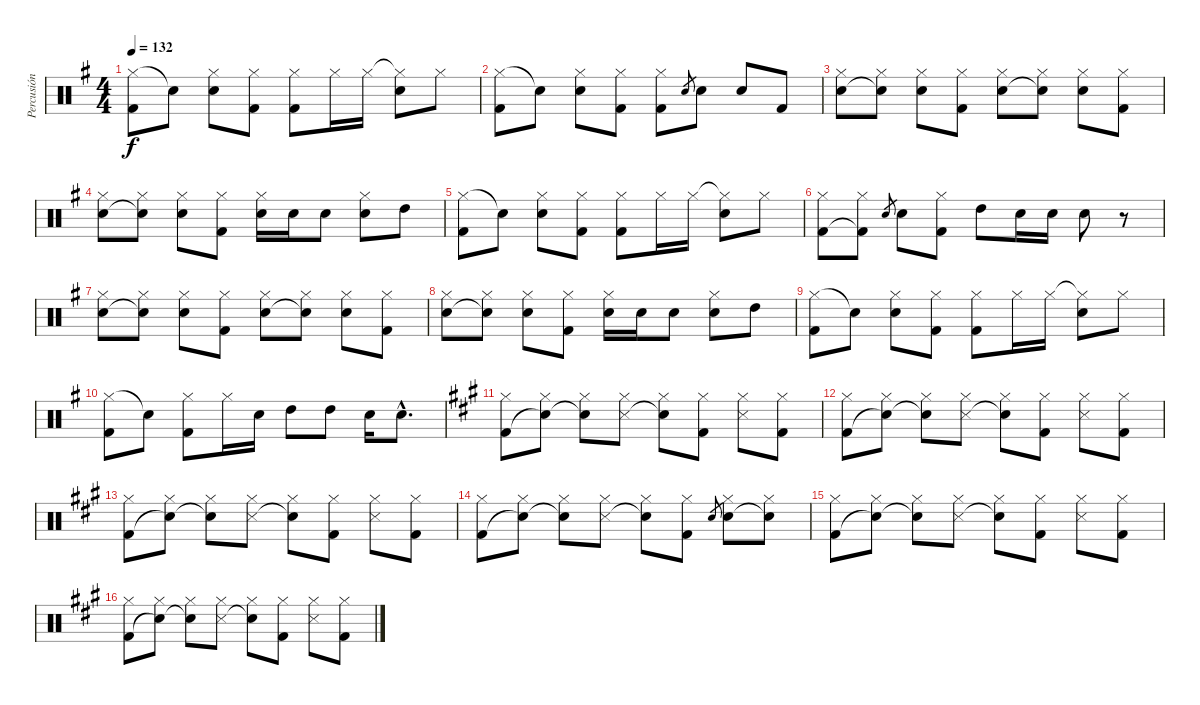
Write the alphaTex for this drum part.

\track ("Percusión" "Percusión") {instrument percussion}
\staff {score}
\articulation defaults
\ts (4 4)
\tempo 132
\clef neutral
\ks eminor
("Hi-Hat (closed)" "Kick (hit) 2").8{dy f} "Snare (hit)"{t}.8 ("Hi-Hat (closed)" "Electric Snare (hit)").8 ("Hi-Hat (closed)" "Kick (hit) 2").8 ("Hi-Hat (closed)" "Kick (hit) 2").8 "Hi-Hat (closed)".16 "Hi-Hat (closed)".16 ("Hi-Hat (closed)"{t} "Electric Snare (hit)").8 "Hi-Hat (closed)".8 |
("Hi-Hat (closed)" "Kick (hit) 2").8 "Snare (hit)"{t}.8 ("Hi-Hat (closed)" "Electric Snare (hit)").8 ("Hi-Hat (closed)" "Kick (hit) 2").8 ("Hi-Hat (closed)" "Kick (hit) 2").8 "Electric Snare (hit)".8{gr} "Electric Snare (hit)".8 "Electric Snare (hit)".8 "Kick (hit) 2".8 |
("Hi-Hat (closed)" "Electric Snare (hit)").8 ("Hi-Hat (closed)" "Snare (hit)"{t}).8 ("Hi-Hat (closed)" "Electric Snare (hit)").8 ("Hi-Hat (closed)" "Kick (hit) 2").8 ("Hi-Hat (closed)" "Electric Snare (hit)").8 ("Hi-Hat (closed)" "Snare (hit)"{t}).8 ("Hi-Hat (closed)" "Electric Snare (hit)").8 ("Hi-Hat (closed)" "Kick (hit) 2").8 |
("Hi-Hat (closed)" "Electric Snare (hit)").8 ("Hi-Hat (closed)" "Snare (hit)"{t}).8 ("Hi-Hat (closed)" "Electric Snare (hit)").8 ("Hi-Hat (closed)" "Kick (hit) 2").8 ("Hi-Hat (closed)" "Electric Snare (hit)").16 "Electric Snare (hit)".16 "Electric Snare (hit)".8 ("Hi-Hat (closed)" "Electric Snare (hit)").8 "High Tom (hit)".8 |
("Hi-Hat (closed)" "Kick (hit) 2").8 "Snare (hit)"{t}.8 ("Hi-Hat (closed)" "Electric Snare (hit)").8 ("Hi-Hat (closed)" "Kick (hit) 2").8 ("Hi-Hat (closed)" "Kick (hit) 2").8 "Hi-Hat (closed)".16 "Hi-Hat (closed)".16 ("Hi-Hat (closed)"{t} "Electric Snare (hit)").8 "Hi-Hat (closed)".8 |
("Hi-Hat (closed)" "Kick (hit) 2").8 ("Hi-Hat (closed)" "Kick (hit) 2"{t}).8 "Electric Snare (hit)".8{gr} "Electric Snare (hit)".8 ("Hi-Hat (closed)" "Kick (hit) 2").8 "High Tom (hit)".8 "Electric Snare (hit)".16 "Electric Snare (hit)".16 "Electric Snare (hit)".8 r.8 |
("Hi-Hat (closed)" "Electric Snare (hit)").8 ("Hi-Hat (closed)" "Snare (hit)"{t}).8 ("Hi-Hat (closed)" "Electric Snare (hit)").8 ("Hi-Hat (closed)" "Kick (hit) 2").8 ("Hi-Hat (closed)" "Electric Snare (hit)").8 ("Hi-Hat (closed)" "Snare (hit)"{t}).8 ("Hi-Hat (closed)" "Electric Snare (hit)").8 ("Hi-Hat (closed)" "Kick (hit) 2").8 |
("Hi-Hat (closed)" "Electric Snare (hit)").8 ("Hi-Hat (closed)" "Snare (hit)"{t}).8 ("Hi-Hat (closed)" "Electric Snare (hit)").8 ("Hi-Hat (closed)" "Kick (hit) 2").8 ("Hi-Hat (closed)" "Electric Snare (hit)").16 "Electric Snare (hit)".16 "Electric Snare (hit)".8 ("Hi-Hat (closed)" "Electric Snare (hit)").8 "High Tom (hit)".8 |
("Hi-Hat (closed)" "Kick (hit) 2").8 "Snare (hit)"{t}.8 ("Hi-Hat (closed)" "Electric Snare (hit)").8 ("Hi-Hat (closed)" "Kick (hit) 2").8 ("Hi-Hat (closed)" "Kick (hit) 2").8 "Hi-Hat (closed)".16 "Hi-Hat (closed)".16 ("Hi-Hat (closed)"{t} "Electric Snare (hit)").8 "Hi-Hat (closed)".8 |
("Hi-Hat (closed)" "Kick (hit) 2").8 "Snare (hit)"{t}.8 ("Hi-Hat (closed)" "Kick (hit) 2").8 "Hi-Hat (closed)".16 "Electric Snare (hit)".16 "High Tom (hit)".8 "High Tom (hit)".8 "Electric Snare (hit)".16 "Electric Snare (hit)"{hac}.8{d} |
\ks f#minor
("Hi-Hat (closed)" "Kick (hit) 2").8 ("Hi-Hat (closed)" "Snare (hit)"{t}).8 ("Hi-Hat (closed)" "Snare (hit)"{t}).8 ("Hi-Hat (closed)" "Snare (side stick) 3").8 ("Hi-Hat (closed)" "Snare (hit)"{t}).8 ("Hi-Hat (closed)" "Kick (hit) 2").8 ("Hi-Hat (closed)" "Snare (side stick) 3").8 ("Hi-Hat (closed)" "Kick (hit) 2").8 |
("Hi-Hat (closed)" "Kick (hit) 2").8 ("Hi-Hat (closed)" "Snare (hit)"{t}).8 ("Hi-Hat (closed)" "Snare (hit)"{t}).8 ("Hi-Hat (closed)" "Snare (side stick) 3").8 ("Hi-Hat (closed)" "Snare (hit)"{t}).8 ("Hi-Hat (closed)" "Kick (hit) 2").8 ("Hi-Hat (closed)" "Snare (side stick) 3").8 ("Hi-Hat (closed)" "Kick (hit) 2").8 |
("Hi-Hat (closed)" "Kick (hit) 2").8 ("Hi-Hat (closed)" "Snare (hit)"{t}).8 ("Hi-Hat (closed)" "Snare (hit)"{t}).8 ("Hi-Hat (closed)" "Snare (side stick) 3").8 ("Hi-Hat (closed)" "Snare (hit)"{t}).8 ("Hi-Hat (closed)" "Kick (hit) 2").8 ("Hi-Hat (closed)" "Snare (side stick) 3").8 ("Hi-Hat (closed)" "Kick (hit) 2").8 |
("Hi-Hat (closed)" "Kick (hit) 2").8 ("Hi-Hat (closed)" "Snare (hit)"{t}).8 ("Hi-Hat (closed)" "Snare (hit)"{t}).8 ("Hi-Hat (closed)" "Snare (side stick) 3").8 ("Hi-Hat (closed)" "Snare (hit)"{t}).8 ("Hi-Hat (closed)" "Kick (hit) 2").8 "Snare (hit) 2".8{gr} ("Hi-Hat (closed)" "Snare (hit) 2").8 ("Hi-Hat (closed)" "Snare (hit)"{t}).8 |
("Hi-Hat (closed)" "Kick (hit) 2").8 ("Hi-Hat (closed)" "Snare (hit)"{t}).8 ("Hi-Hat (closed)" "Snare (hit)"{t}).8 ("Hi-Hat (closed)" "Snare (side stick) 3").8 ("Hi-Hat (closed)" "Snare (hit)"{t}).8 ("Hi-Hat (closed)" "Kick (hit) 2").8 ("Hi-Hat (closed)" "Snare (side stick) 3").8 ("Hi-Hat (closed)" "Kick (hit) 2").8 |
("Hi-Hat (closed)" "Kick (hit) 2").8 ("Hi-Hat (closed)" "Snare (hit)"{t}).8 ("Hi-Hat (closed)" "Snare (hit)"{t}).8 ("Hi-Hat (closed)" "Snare (side stick) 3").8 ("Hi-Hat (closed)" "Snare (hit)"{t}).8 ("Hi-Hat (closed)" "Kick (hit) 2").8 ("Hi-Hat (closed)" "Snare (side stick) 3").8 ("Hi-Hat (closed)" "Kick (hit) 2").8
